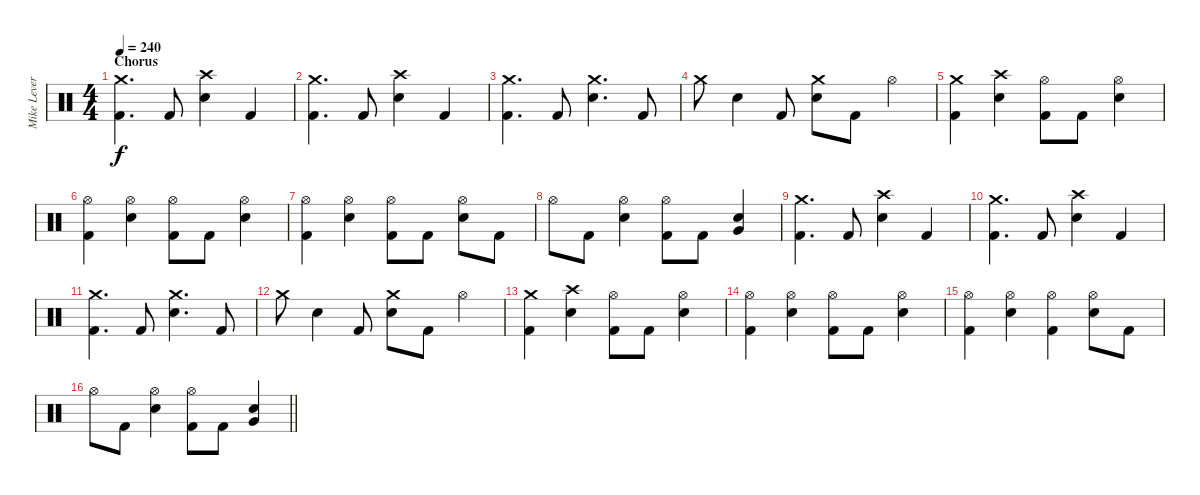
\track ("Mike Leverence - Drums" "Mike Lever") {instrument percussion}
\staff {score}
\articulation defaults
\ts (4 4)
\section ("" "Chorus")
\tempo 240
\clef neutral
\ks c
("Crash medium (hit)" "Kick (hit) 2").4{d dy f} "Kick (hit) 2".8 ("Crash high (hit)" "Electric Snare (hit)").4 "Kick (hit) 2".4 |
("Crash medium (hit)" "Kick (hit) 2").4{d} "Kick (hit) 2".8 ("Crash high (hit)" "Electric Snare (hit)").4 "Kick (hit) 2".4 |
("Crash medium (hit)" "Kick (hit) 2").4{d} "Kick (hit) 2".8 ("Crash medium (hit)" "Electric Snare (hit)").4{d} "Kick (hit) 2".8 |
"Crash medium (hit)".8 "Electric Snare (hit)".4 "Kick (hit) 2".8 ("Crash medium (hit)" "Electric Snare (hit)").8 "Kick (hit) 2".8 "Hi-Hat (open)".4 |
("Crash medium (hit)" "Kick (hit) 2").4 ("Crash high (hit)" "Electric Snare (hit)").4 ("Hi-Hat (open)" "Kick (hit) 2").8 "Kick (hit) 2".8 ("Hi-Hat (open)" "Electric Snare (hit)").4 |
("Hi-Hat (open)" "Kick (hit) 2").4 ("Hi-Hat (open)" "Electric Snare (hit)").4 ("Hi-Hat (open)" "Kick (hit) 2").8 "Kick (hit) 2".8 ("Hi-Hat (open)" "Electric Snare (hit)").4 |
("Hi-Hat (open)" "Kick (hit) 2").4 ("Hi-Hat (open)" "Electric Snare (hit)").4 ("Hi-Hat (open)" "Kick (hit) 2").8 "Kick (hit) 2".8 ("Hi-Hat (open)" "Electric Snare (hit)").8 "Kick (hit) 2".8 |
"Hi-Hat (open)".8 "Kick (hit) 2".8 ("Hi-Hat (open)" "Electric Snare (hit)").4 ("Hi-Hat (open)" "Kick (hit) 2").8 "Kick (hit) 2".8 ("Very Low Tom (hit)" "Electric Snare (hit)").4 |
("Crash medium (hit)" "Kick (hit) 2").4{d} "Kick (hit) 2".8 ("Crash high (hit)" "Electric Snare (hit)").4 "Kick (hit) 2".4 |
("Crash medium (hit)" "Kick (hit) 2").4{d} "Kick (hit) 2".8 ("Crash high (hit)" "Electric Snare (hit)").4 "Kick (hit) 2".4 |
("Crash medium (hit)" "Kick (hit) 2").4{d} "Kick (hit) 2".8 ("Crash medium (hit)" "Electric Snare (hit)").4{d} "Kick (hit) 2".8 |
"Crash medium (hit)".8 "Electric Snare (hit)".4 "Kick (hit) 2".8 ("Crash medium (hit)" "Electric Snare (hit)").8 "Kick (hit) 2".8 "Hi-Hat (open)".4 |
("Crash medium (hit)" "Kick (hit) 2").4 ("Crash high (hit)" "Electric Snare (hit)").4 ("Hi-Hat (open)" "Kick (hit) 2").8 "Kick (hit) 2".8 ("Hi-Hat (open)" "Electric Snare (hit)").4 |
("Hi-Hat (open)" "Kick (hit) 2").4 ("Hi-Hat (open)" "Electric Snare (hit)").4 ("Hi-Hat (open)" "Kick (hit) 2").8 "Kick (hit) 2".8 ("Hi-Hat (open)" "Electric Snare (hit)").4 |
("Hi-Hat (open)" "Kick (hit) 2").4 ("Hi-Hat (open)" "Electric Snare (hit)").4 ("Hi-Hat (open)" "Kick (hit) 2").4 ("Hi-Hat (open)" "Electric Snare (hit)").8 "Kick (hit) 2".8 |
\barLineRight lightlight "Hi-Hat (open)".8 "Kick (hit) 2".8
("Hi-Hat (open)" "Electric Snare (hit)").4 ("Hi-Hat (open)" "Kick (hit) 2").8 "Kick (hit) 2".8 ("Very Low Tom (hit)" "Electric Snare (hit)").4
